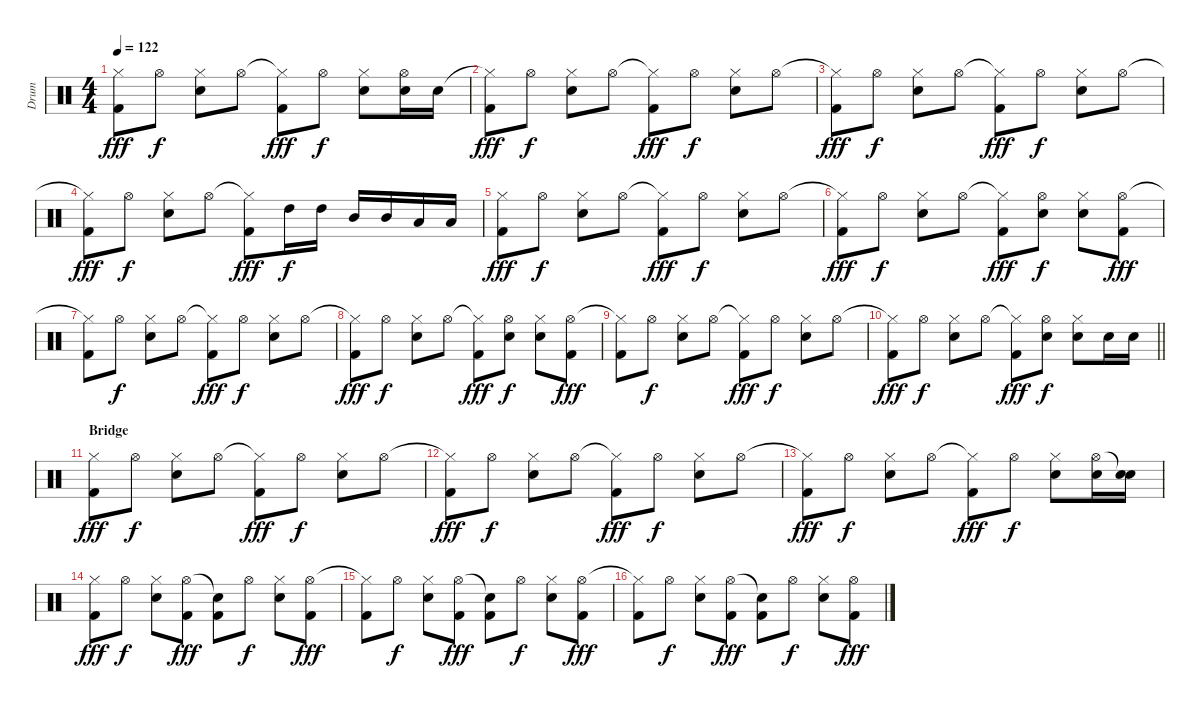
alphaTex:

\track ("Drum" "Drum") {instrument percussion}
\staff {score}
\articulation defaults
\ts (4 4)
\tempo 122
\clef neutral
\ks c
("Hi-Hat (closed)"{t} "Kick (hit) 2").8{dy fff} "Hi-Hat (open)".8{dy f} ("Hi-Hat (closed)" "Electric Snare (hit)").8 "Hi-Hat (open)".8 ("Hi-Hat (closed)"{t} "Kick (hit) 2").8{dy fff} "Hi-Hat (open)".8{dy f} ("Hi-Hat (closed)" "Electric Snare (hit)").8 ("Hi-Hat (open)" "Electric Snare (hit)").16 "Electric Snare (hit)".16 |
("Hi-Hat (closed)"{t} "Kick (hit) 2").8{dy fff} "Hi-Hat (open)".8{dy f} ("Hi-Hat (closed)" "Electric Snare (hit)").8 "Hi-Hat (open)".8 ("Hi-Hat (closed)"{t} "Kick (hit) 2").8{dy fff} "Hi-Hat (open)".8{dy f} ("Hi-Hat (closed)" "Electric Snare (hit)").8 "Hi-Hat (open)".8 |
("Hi-Hat (closed)"{t} "Kick (hit) 2").8{dy fff} "Hi-Hat (open)".8{dy f} ("Hi-Hat (closed)" "Electric Snare (hit)").8 "Hi-Hat (open)".8 ("Hi-Hat (closed)"{t} "Kick (hit) 2").8{dy fff} "Hi-Hat (open)".8{dy f} ("Hi-Hat (closed)" "Electric Snare (hit)").8 "Hi-Hat (open)".8 |
("Hi-Hat (closed)"{t} "Kick (hit) 2").8{dy fff} "Hi-Hat (open)".8{dy f} ("Hi-Hat (closed)" "Electric Snare (hit)").8 "Hi-Hat (open)".8 ("Hi-Hat (closed)"{t} "Kick (hit) 2").8{dy fff} "High Tom (hit)".16{dy f} "High Tom (hit)".16 "Mid Tom (hit)".16 "Mid Tom (hit)".16 "Low Tom (hit)".16 "Low Tom (hit)".16 |
("Hi-Hat (closed)" "Kick (hit) 2").8{dy fff} "Hi-Hat (open)".8{dy f} ("Hi-Hat (closed)" "Electric Snare (hit)").8 "Hi-Hat (open)".8 ("Hi-Hat (closed)"{t} "Kick (hit) 2").8{dy fff} "Hi-Hat (open)".8{dy f} ("Hi-Hat (closed)" "Electric Snare (hit)").8 "Hi-Hat (open)".8 |
("Hi-Hat (closed)"{t} "Kick (hit) 2").8{dy fff} "Hi-Hat (open)".8{dy f} ("Hi-Hat (closed)" "Electric Snare (hit)").8 "Hi-Hat (open)".8 ("Hi-Hat (closed)"{t} "Kick (hit) 2").8{dy fff} ("Hi-Hat (open)" "Hand Clap (hit)").8{dy f} ("Hi-Hat (closed)" "Hand Clap (hit)").8 ("Hi-Hat (open)" "Kick (hit) 2").8{dy fff} |
("Hi-Hat (closed)"{t} "Kick (hit) 2").8 "Hi-Hat (open)".8{dy f} ("Hi-Hat (closed)" "Electric Snare (hit)").8 "Hi-Hat (open)".8 ("Hi-Hat (closed)"{t} "Kick (hit) 2").8{dy fff} "Hi-Hat (open)".8{dy f} ("Hi-Hat (closed)" "Electric Snare (hit)").8 "Hi-Hat (open)".8 |
("Hi-Hat (closed)"{t} "Kick (hit) 2").8{dy fff} "Hi-Hat (open)".8{dy f} ("Hi-Hat (closed)" "Electric Snare (hit)").8 "Hi-Hat (open)".8 ("Hi-Hat (closed)"{t} "Kick (hit) 2").8{dy fff} ("Hi-Hat (open)" "Hand Clap (hit)").8{dy f} ("Hi-Hat (closed)" "Hand Clap (hit)").8 ("Hi-Hat (open)" "Kick (hit) 2").8{dy fff} |
("Hi-Hat (closed)"{t} "Kick (hit) 2").8 "Hi-Hat (open)".8{dy f} ("Hi-Hat (closed)" "Electric Snare (hit)").8 "Hi-Hat (open)".8 ("Hi-Hat (closed)"{t} "Kick (hit) 2").8{dy fff} "Hi-Hat (open)".8{dy f} ("Hi-Hat (closed)" "Electric Snare (hit)").8 "Hi-Hat (open)".8 |
\barLineRight lightlight
("Hi-Hat (closed)"{t} "Kick (hit) 2").8{dy fff} "Hi-Hat (open)".8{dy f} ("Hi-Hat (closed)" "Electric Snare (hit)").8 "Hi-Hat (open)".8 ("Hi-Hat (closed)"{t} "Kick (hit) 2").8{dy fff} ("Hi-Hat (open)" "Hand Clap (hit)").8{dy f} ("Hi-Hat (closed)" "Hand Clap (hit)").8 "Electric Snare (hit)".16 "Electric Snare (hit)".16 |
\section ("" "Bridge")
("Hi-Hat (closed)" "Kick (hit) 2").8{dy fff} "Hi-Hat (open)".8{dy f} ("Hi-Hat (closed)" "Electric Snare (hit)").8 "Hi-Hat (open)".8 ("Hi-Hat (closed)"{t} "Kick (hit) 2").8{dy fff} "Hi-Hat (open)".8{dy f} ("Hi-Hat (closed)" "Electric Snare (hit)").8 "Hi-Hat (open)".8 |
("Hi-Hat (closed)"{t} "Kick (hit) 2").8{dy fff} "Hi-Hat (open)".8{dy f} ("Hi-Hat (closed)" "Electric Snare (hit)").8 "Hi-Hat (open)".8 ("Hi-Hat (closed)"{t} "Kick (hit) 2").8{dy fff} "Hi-Hat (open)".8{dy f} ("Hi-Hat (closed)" "Electric Snare (hit)").8 "Hi-Hat (open)".8 |
("Hi-Hat (closed)"{t} "Kick (hit) 2").8{dy fff} "Hi-Hat (open)".8{dy f} ("Hi-Hat (closed)" "Electric Snare (hit)").8 "Hi-Hat (open)".8 ("Hi-Hat (closed)"{t} "Kick (hit) 2").8{dy fff} "Hi-Hat (open)".8{dy f} ("Hi-Hat (closed)" "Electric Snare (hit)").8 ("Hi-Hat (open)" "Electric Snare (hit)").16 ("Snare (hit)"{t} "Electric Snare (hit)").16 |
("Hi-Hat (closed)" "Kick (hit) 2").8{dy fff} "Hi-Hat (open)".8{dy f} ("Hi-Hat (closed)" "Electric Snare (hit)").8 ("Hi-Hat (open)" "Kick (hit) 2").8{dy fff} ("Snare (hit)"{t} "Kick (hit) 2").8 "Hi-Hat (open)".8{dy f} ("Hi-Hat (closed)" "Electric Snare (hit)").8 ("Hi-Hat (open)" "Kick (hit) 2").8{dy fff} |
("Hi-Hat (closed)"{t} "Kick (hit) 2").8 "Hi-Hat (open)".8{dy f} ("Hi-Hat (closed)" "Electric Snare (hit)").8 ("Hi-Hat (open)" "Kick (hit) 2").8{dy fff} ("Snare (hit)"{t} "Kick (hit) 2").8 "Hi-Hat (open)".8{dy f} ("Hi-Hat (closed)" "Electric Snare (hit)").8 ("Hi-Hat (open)" "Kick (hit) 2").8{dy fff} |
("Hi-Hat (closed)"{t} "Kick (hit) 2").8 "Hi-Hat (open)".8{dy f} ("Hi-Hat (closed)" "Electric Snare (hit)").8 ("Hi-Hat (open)" "Kick (hit) 2").8{dy fff} ("Snare (hit)"{t} "Kick (hit) 2").8 "Hi-Hat (open)".8{dy f} ("Hi-Hat (closed)" "Electric Snare (hit)").8 ("Hi-Hat (open)" "Kick (hit) 2").8{dy fff}
